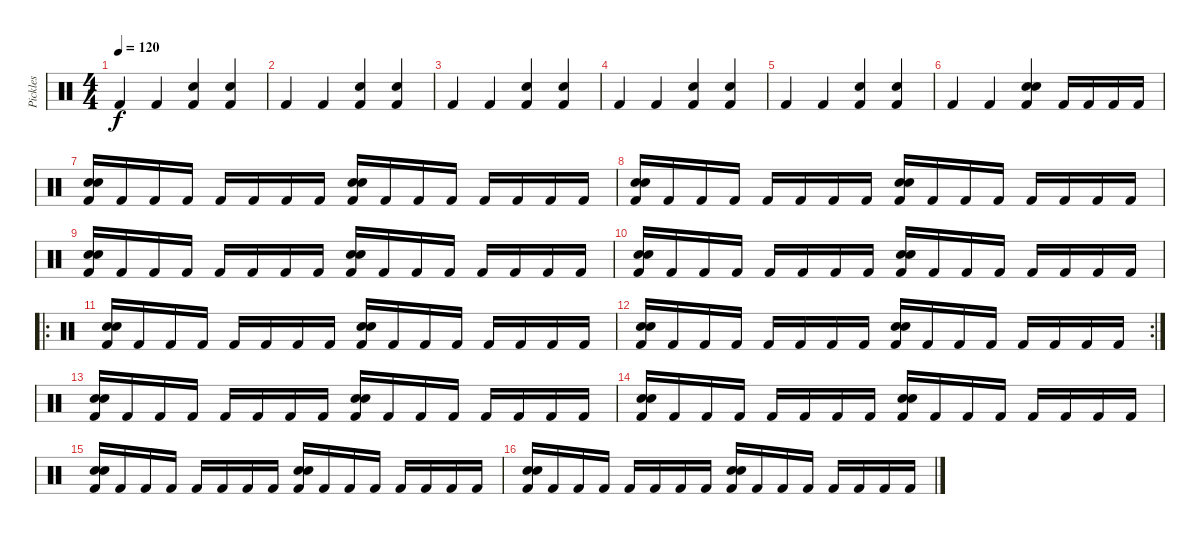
\track ("Pickles" "Pickles") {instrument percussion}
\staff {score}
\articulation defaults
\ts (4 4)
\tempo 120
\clef neutral
\ks c "Kick (hit) 2".4{dy f} "Kick (hit) 2".4
("Snare (hit) 2" "Kick (hit) 2").4 ("Electric Snare (hit)" "Kick (hit) 2").4 |
"Kick (hit) 2".4 "Kick (hit) 2".4 ("Snare (hit) 2" "Kick (hit) 2").4 ("Electric Snare (hit)" "Kick (hit) 2").4 |
"Kick (hit) 2".4 "Kick (hit) 2".4 ("Snare (hit) 2" "Kick (hit) 2").4 ("Electric Snare (hit)" "Kick (hit) 2").4 |
"Kick (hit) 2".4 "Kick (hit) 2".4 ("Snare (hit) 2" "Kick (hit) 2").4 ("Electric Snare (hit)" "Kick (hit) 2").4 |
"Kick (hit) 2".4 "Kick (hit) 2".4 ("Snare (hit) 2" "Kick (hit) 2").4 ("Electric Snare (hit)" "Kick (hit) 2").4 |
"Kick (hit) 2".4 "Kick (hit) 2".4 ("Electric Snare (hit)" "Snare (hit) 2" "Kick (hit) 2").4 "Kick (hit) 2".16 "Kick (hit) 2".16 "Kick (hit) 2".16 "Kick (hit) 2".16 |
("Electric Snare (hit)" "Snare (hit) 2" "Kick (hit) 2").16 "Kick (hit) 2".16 "Kick (hit) 2".16 "Kick (hit) 2".16 "Kick (hit) 2".16 "Kick (hit) 2".16 "Kick (hit) 2".16 "Kick (hit) 2".16 ("Electric Snare (hit)" "Snare (hit) 2" "Kick (hit) 2").16 "Kick (hit) 2".16 "Kick (hit) 2".16 "Kick (hit) 2".16 "Kick (hit) 2".16 "Kick (hit) 2".16 "Kick (hit) 2".16 "Kick (hit) 2".16 |
("Electric Snare (hit)" "Snare (hit) 2" "Kick (hit) 2").16 "Kick (hit) 2".16 "Kick (hit) 2".16 "Kick (hit) 2".16 "Kick (hit) 2".16 "Kick (hit) 2".16 "Kick (hit) 2".16 "Kick (hit) 2".16 ("Electric Snare (hit)" "Snare (hit) 2" "Kick (hit) 2").16 "Kick (hit) 2".16 "Kick (hit) 2".16 "Kick (hit) 2".16 "Kick (hit) 2".16 "Kick (hit) 2".16 "Kick (hit) 2".16 "Kick (hit) 2".16 |
("Electric Snare (hit)" "Snare (hit) 2" "Kick (hit) 2").16 "Kick (hit) 2".16 "Kick (hit) 2".16 "Kick (hit) 2".16 "Kick (hit) 2".16 "Kick (hit) 2".16 "Kick (hit) 2".16 "Kick (hit) 2".16 ("Electric Snare (hit)" "Snare (hit) 2" "Kick (hit) 2").16 "Kick (hit) 2".16 "Kick (hit) 2".16 "Kick (hit) 2".16 "Kick (hit) 2".16 "Kick (hit) 2".16 "Kick (hit) 2".16 "Kick (hit) 2".16 |
("Electric Snare (hit)" "Snare (hit) 2" "Kick (hit) 2").16 "Kick (hit) 2".16 "Kick (hit) 2".16 "Kick (hit) 2".16 "Kick (hit) 2".16 "Kick (hit) 2".16 "Kick (hit) 2".16 "Kick (hit) 2".16 ("Electric Snare (hit)" "Snare (hit) 2" "Kick (hit) 2").16 "Kick (hit) 2".16 "Kick (hit) 2".16 "Kick (hit) 2".16 "Kick (hit) 2".16 "Kick (hit) 2".16 "Kick (hit) 2".16 "Kick (hit) 2".16 |
\ro
("Electric Snare (hit)" "Snare (hit) 2" "Kick (hit) 2").16 "Kick (hit) 2".16 "Kick (hit) 2".16 "Kick (hit) 2".16 "Kick (hit) 2".16 "Kick (hit) 2".16 "Kick (hit) 2".16 "Kick (hit) 2".16 ("Electric Snare (hit)" "Snare (hit) 2" "Kick (hit) 2").16 "Kick (hit) 2".16 "Kick (hit) 2".16 "Kick (hit) 2".16 "Kick (hit) 2".16 "Kick (hit) 2".16 "Kick (hit) 2".16 "Kick (hit) 2".16 |
\rc 2
("Electric Snare (hit)" "Snare (hit) 2" "Kick (hit) 2").16 "Kick (hit) 2".16 "Kick (hit) 2".16 "Kick (hit) 2".16 "Kick (hit) 2".16 "Kick (hit) 2".16 "Kick (hit) 2".16 "Kick (hit) 2".16 ("Electric Snare (hit)" "Snare (hit) 2" "Kick (hit) 2").16 "Kick (hit) 2".16 "Kick (hit) 2".16 "Kick (hit) 2".16 "Kick (hit) 2".16 "Kick (hit) 2".16 "Kick (hit) 2".16 "Kick (hit) 2".16 |
("Electric Snare (hit)" "Snare (hit) 2" "Kick (hit) 2").16 "Kick (hit) 2".16 "Kick (hit) 2".16 "Kick (hit) 2".16 "Kick (hit) 2".16 "Kick (hit) 2".16 "Kick (hit) 2".16 "Kick (hit) 2".16 ("Electric Snare (hit)" "Snare (hit) 2" "Kick (hit) 2").16 "Kick (hit) 2".16 "Kick (hit) 2".16 "Kick (hit) 2".16 "Kick (hit) 2".16 "Kick (hit) 2".16 "Kick (hit) 2".16 "Kick (hit) 2".16 |
("Electric Snare (hit)" "Snare (hit) 2" "Kick (hit) 2").16 "Kick (hit) 2".16 "Kick (hit) 2".16 "Kick (hit) 2".16 "Kick (hit) 2".16 "Kick (hit) 2".16 "Kick (hit) 2".16 "Kick (hit) 2".16 ("Electric Snare (hit)" "Snare (hit) 2" "Kick (hit) 2").16 "Kick (hit) 2".16 "Kick (hit) 2".16 "Kick (hit) 2".16 "Kick (hit) 2".16 "Kick (hit) 2".16 "Kick (hit) 2".16 "Kick (hit) 2".16 |
("Electric Snare (hit)" "Snare (hit) 2" "Kick (hit) 2").16 "Kick (hit) 2".16 "Kick (hit) 2".16 "Kick (hit) 2".16 "Kick (hit) 2".16 "Kick (hit) 2".16 "Kick (hit) 2".16 "Kick (hit) 2".16 ("Electric Snare (hit)" "Snare (hit) 2" "Kick (hit) 2").16 "Kick (hit) 2".16 "Kick (hit) 2".16 "Kick (hit) 2".16 "Kick (hit) 2".16 "Kick (hit) 2".16 "Kick (hit) 2".16 "Kick (hit) 2".16 |
("Electric Snare (hit)" "Snare (hit) 2" "Kick (hit) 2").16 "Kick (hit) 2".16 "Kick (hit) 2".16 "Kick (hit) 2".16 "Kick (hit) 2".16 "Kick (hit) 2".16 "Kick (hit) 2".16 "Kick (hit) 2".16 ("Electric Snare (hit)" "Snare (hit) 2" "Kick (hit) 2").16 "Kick (hit) 2".16 "Kick (hit) 2".16 "Kick (hit) 2".16 "Kick (hit) 2".16 "Kick (hit) 2".16 "Kick (hit) 2".16 "Kick (hit) 2".16
